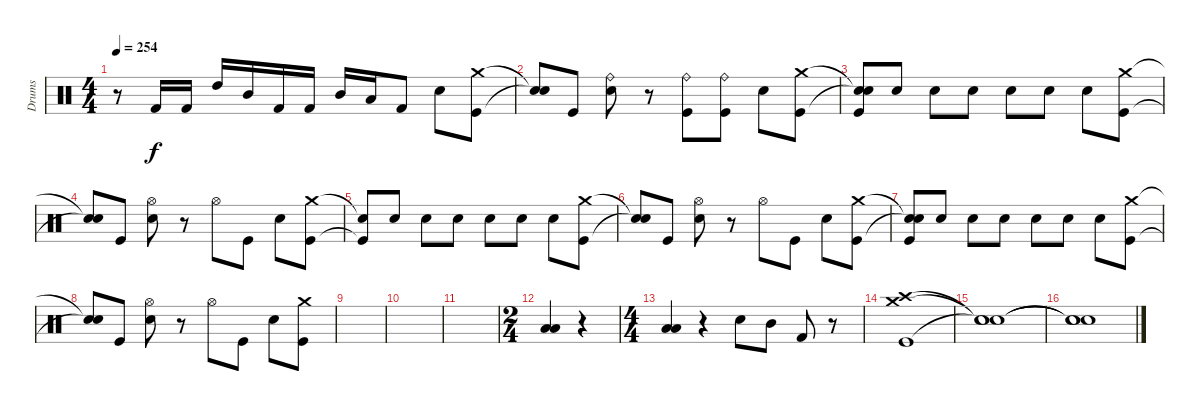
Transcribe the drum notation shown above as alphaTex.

\track ("Drums" "Drums") {instrument percussion}
\staff {score}
\articulation defaults
\ts (4 4)
\tempo 254
\clef neutral
\ks c
r.8{dy f} "Kick (hit) 2".16 "Kick (hit) 2".16 "High Tom (hit)".16 "Mid Tom (hit)".16 "Kick (hit) 2".16 "Kick (hit) 2".16 "Mid Tom (hit)".16 "Low Tom (hit)".16 "Kick (hit) 2".8 "Electric Snare (hit)".8 ("Crash medium (hit)" "Kick (hit)").8 |
("Snare (hit)"{t} "Snare (hit)"{t}).8 "Kick (hit)".8 ("Ride (bell)" "Electric Snare (hit)").8 r.8 ("Ride (bell)" "Kick (hit)").8 ("Ride (bell)" "Kick (hit)").8 "Electric Snare (hit)".8 ("Crash medium (hit)" "Kick (hit)").8 |
("Snare (hit)"{t} "Snare (hit)"{t} "Kick (hit)").8 "Electric Snare (hit)".8 "Electric Snare (hit)".8 "Electric Snare (hit)".8 "Electric Snare (hit)".8 "Electric Snare (hit)".8 "Electric Snare (hit)".8 ("Crash medium (hit)" "Kick (hit)").8 |
("Snare (hit)"{t} "Snare (hit)"{t}).8 "Kick (hit)".8 ("Hi-Hat (open)" "Electric Snare (hit)").8 r.8 "Hi-Hat (open)".8 "Kick (hit)".8 "Electric Snare (hit)".8 ("Crash medium (hit)" "Kick (hit)").8 |
("Snare (hit)"{t} "Kick (hit)"{t}).8 "Electric Snare (hit)".8 "Electric Snare (hit)".8 "Electric Snare (hit)".8 "Electric Snare (hit)".8 "Electric Snare (hit)".8 "Electric Snare (hit)".8 ("Crash medium (hit)" "Kick (hit)").8 |
("Snare (hit)"{t} "Snare (hit)"{t}).8 "Kick (hit)".8 ("Hi-Hat (open)" "Electric Snare (hit)").8 r.8 "Hi-Hat (open)".8 "Kick (hit)".8 "Electric Snare (hit)".8 ("Crash medium (hit)" "Kick (hit)").8 |
("Snare (hit)"{t} "Snare (hit)"{t} "Kick (hit)").8 "Electric Snare (hit)".8 "Electric Snare (hit)".8 "Electric Snare (hit)".8 "Electric Snare (hit)".8 "Electric Snare (hit)".8 "Electric Snare (hit)".8 ("Crash medium (hit)" "Kick (hit)").8 |
("Snare (hit)"{t} "Snare (hit)"{t}).8 "Kick (hit)".8 ("Hi-Hat (open)" "Electric Snare (hit)").8 r.8 "Hi-Hat (open)".8 "Kick (hit)".8 "Electric Snare (hit)".8 ("Crash medium (hit)" "Kick (hit)").8 |
|
|
|
\ts (2 4)
("Low Tom (hit)" "Low Floor Tom (hit)").4 r.4 |
\ts (4 4)
("Low Floor Tom (hit)" "Low Tom (hit)").4 r.4 "Electric Snare (hit)".8 "Mid Tom (hit)".8 "Kick (hit) 2".8 r.8 |
("Crash medium (hit)" "Crash high (hit)" "Kick (hit)").1 |
("Snare (hit)"{t} "Snare (hit)"{t} "Snare (hit)"{t}).1 |
("Snare (hit)"{t} "Snare (hit)"{t} "Snare (hit)"{t}).1
